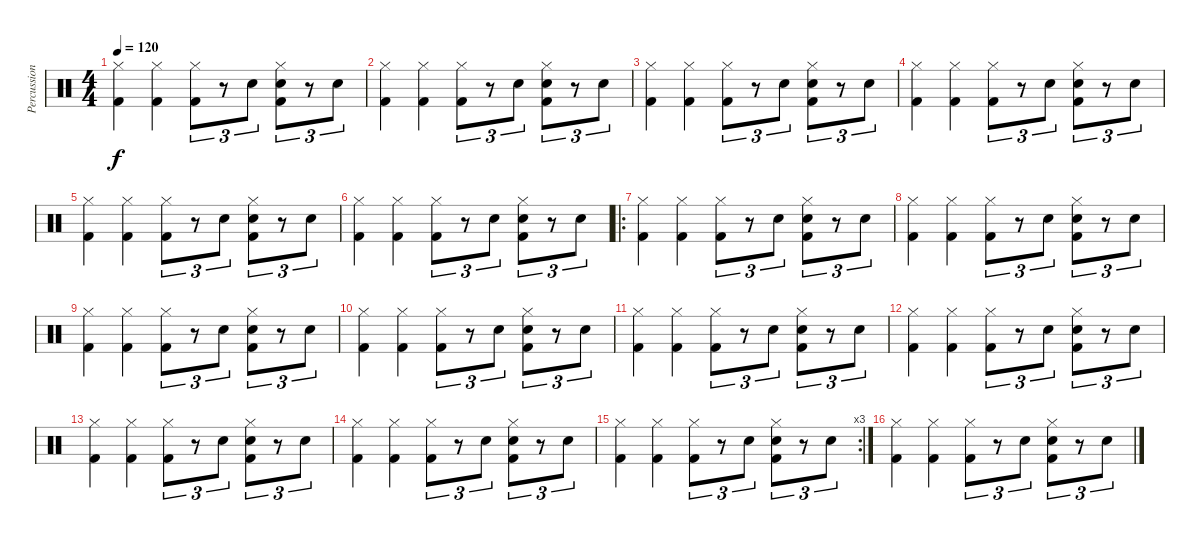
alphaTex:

\track ("Percussions" "Percussion") {instrument percussion}
\staff {score}
\articulation defaults
\ts (4 4)
\tempo 120
\clef neutral
\ks c
("Hi-Hat (closed)" "Kick (hit) 2").4{dy f} ("Hi-Hat (closed)" "Kick (hit) 2").4 ("Hi-Hat (closed)" "Kick (hit) 2").8{tu (3 2)} r.8{tu (3 2)} "Electric Snare (hit)".8{tu (3 2)} ("Hi-Hat (closed)" "Electric Snare (hit)" "Kick (hit) 2").8{tu (3 2)} r.8{tu (3 2)} "Electric Snare (hit)".8{tu (3 2)} |
("Hi-Hat (closed)" "Kick (hit) 2").4 ("Hi-Hat (closed)" "Kick (hit) 2").4 ("Hi-Hat (closed)" "Kick (hit) 2").8{tu (3 2)} r.8{tu (3 2)} "Electric Snare (hit)".8{tu (3 2)} ("Hi-Hat (closed)" "Electric Snare (hit)" "Kick (hit) 2").8{tu (3 2)} r.8{tu (3 2)} "Electric Snare (hit)".8{tu (3 2)} |
("Hi-Hat (closed)" "Kick (hit) 2").4 ("Hi-Hat (closed)" "Kick (hit) 2").4 ("Hi-Hat (closed)" "Kick (hit) 2").8{tu (3 2)} r.8{tu (3 2)} "Electric Snare (hit)".8{tu (3 2)} ("Hi-Hat (closed)" "Electric Snare (hit)" "Kick (hit) 2").8{tu (3 2)} r.8{tu (3 2)} "Electric Snare (hit)".8{tu (3 2)} |
("Hi-Hat (closed)" "Kick (hit) 2").4 ("Hi-Hat (closed)" "Kick (hit) 2").4 ("Hi-Hat (closed)" "Kick (hit) 2").8{tu (3 2)} r.8{tu (3 2)} "Electric Snare (hit)".8{tu (3 2)} ("Hi-Hat (closed)" "Electric Snare (hit)" "Kick (hit) 2").8{tu (3 2)} r.8{tu (3 2)} "Electric Snare (hit)".8{tu (3 2)} |
("Hi-Hat (closed)" "Kick (hit) 2").4 ("Hi-Hat (closed)" "Kick (hit) 2").4 ("Hi-Hat (closed)" "Kick (hit) 2").8{tu (3 2)} r.8{tu (3 2)} "Electric Snare (hit)".8{tu (3 2)} ("Hi-Hat (closed)" "Electric Snare (hit)" "Kick (hit) 2").8{tu (3 2)} r.8{tu (3 2)} "Electric Snare (hit)".8{tu (3 2)} |
("Hi-Hat (closed)" "Kick (hit) 2").4 ("Hi-Hat (closed)" "Kick (hit) 2").4 ("Hi-Hat (closed)" "Kick (hit) 2").8{tu (3 2)} r.8{tu (3 2)} "Electric Snare (hit)".8{tu (3 2)} ("Hi-Hat (closed)" "Electric Snare (hit)" "Kick (hit) 2").8{tu (3 2)} r.8{tu (3 2)} "Electric Snare (hit)".8{tu (3 2)} |
\ro
("Hi-Hat (closed)" "Kick (hit) 2").4 ("Hi-Hat (closed)" "Kick (hit) 2").4 ("Hi-Hat (closed)" "Kick (hit) 2").8{tu (3 2)} r.8{tu (3 2)} "Electric Snare (hit)".8{tu (3 2)} ("Hi-Hat (closed)" "Electric Snare (hit)" "Kick (hit) 2").8{tu (3 2)} r.8{tu (3 2)} "Electric Snare (hit)".8{tu (3 2)} |
("Hi-Hat (closed)" "Kick (hit) 2").4 ("Hi-Hat (closed)" "Kick (hit) 2").4 ("Hi-Hat (closed)" "Kick (hit) 2").8{tu (3 2)} r.8{tu (3 2)} "Electric Snare (hit)".8{tu (3 2)} ("Hi-Hat (closed)" "Electric Snare (hit)" "Kick (hit) 2").8{tu (3 2)} r.8{tu (3 2)} "Electric Snare (hit)".8{tu (3 2)} |
("Hi-Hat (closed)" "Kick (hit) 2").4 ("Hi-Hat (closed)" "Kick (hit) 2").4 ("Hi-Hat (closed)" "Kick (hit) 2").8{tu (3 2)} r.8{tu (3 2)} "Electric Snare (hit)".8{tu (3 2)} ("Hi-Hat (closed)" "Electric Snare (hit)" "Kick (hit) 2").8{tu (3 2)} r.8{tu (3 2)} "Electric Snare (hit)".8{tu (3 2)} |
("Hi-Hat (closed)" "Kick (hit) 2").4 ("Hi-Hat (closed)" "Kick (hit) 2").4 ("Hi-Hat (closed)" "Kick (hit) 2").8{tu (3 2)} r.8{tu (3 2)} "Electric Snare (hit)".8{tu (3 2)} ("Hi-Hat (closed)" "Electric Snare (hit)" "Kick (hit) 2").8{tu (3 2)} r.8{tu (3 2)} "Electric Snare (hit)".8{tu (3 2)} |
("Hi-Hat (closed)" "Kick (hit) 2").4 ("Hi-Hat (closed)" "Kick (hit) 2").4 ("Hi-Hat (closed)" "Kick (hit) 2").8{tu (3 2)} r.8{tu (3 2)} "Electric Snare (hit)".8{tu (3 2)} ("Hi-Hat (closed)" "Electric Snare (hit)" "Kick (hit) 2").8{tu (3 2)} r.8{tu (3 2)} "Electric Snare (hit)".8{tu (3 2)} |
("Hi-Hat (closed)" "Kick (hit) 2").4 ("Hi-Hat (closed)" "Kick (hit) 2").4 ("Hi-Hat (closed)" "Kick (hit) 2").8{tu (3 2)} r.8{tu (3 2)} "Electric Snare (hit)".8{tu (3 2)} ("Hi-Hat (closed)" "Electric Snare (hit)" "Kick (hit) 2").8{tu (3 2)} r.8{tu (3 2)} "Electric Snare (hit)".8{tu (3 2)} |
("Hi-Hat (closed)" "Kick (hit) 2").4 ("Hi-Hat (closed)" "Kick (hit) 2").4 ("Hi-Hat (closed)" "Kick (hit) 2").8{tu (3 2)} r.8{tu (3 2)} "Electric Snare (hit)".8{tu (3 2)} ("Hi-Hat (closed)" "Electric Snare (hit)" "Kick (hit) 2").8{tu (3 2)} r.8{tu (3 2)} "Electric Snare (hit)".8{tu (3 2)} |
("Hi-Hat (closed)" "Kick (hit) 2").4 ("Hi-Hat (closed)" "Kick (hit) 2").4 ("Hi-Hat (closed)" "Kick (hit) 2").8{tu (3 2)} r.8{tu (3 2)} "Electric Snare (hit)".8{tu (3 2)} ("Hi-Hat (closed)" "Electric Snare (hit)" "Kick (hit) 2").8{tu (3 2)} r.8{tu (3 2)} "Electric Snare (hit)".8{tu (3 2)} |
\rc 3
("Hi-Hat (closed)" "Kick (hit) 2").4 ("Hi-Hat (closed)" "Kick (hit) 2").4 ("Hi-Hat (closed)" "Kick (hit) 2").8{tu (3 2)} r.8{tu (3 2)} "Electric Snare (hit)".8{tu (3 2)} ("Hi-Hat (closed)" "Electric Snare (hit)" "Kick (hit) 2").8{tu (3 2)} r.8{tu (3 2)} "Electric Snare (hit)".8{tu (3 2)} |
("Hi-Hat (closed)" "Kick (hit) 2").4 ("Hi-Hat (closed)" "Kick (hit) 2").4 ("Hi-Hat (closed)" "Kick (hit) 2").8{tu (3 2)} r.8{tu (3 2)} "Electric Snare (hit)".8{tu (3 2)} ("Hi-Hat (closed)" "Electric Snare (hit)" "Kick (hit) 2").8{tu (3 2)} r.8{tu (3 2)} "Electric Snare (hit)".8{tu (3 2)}
